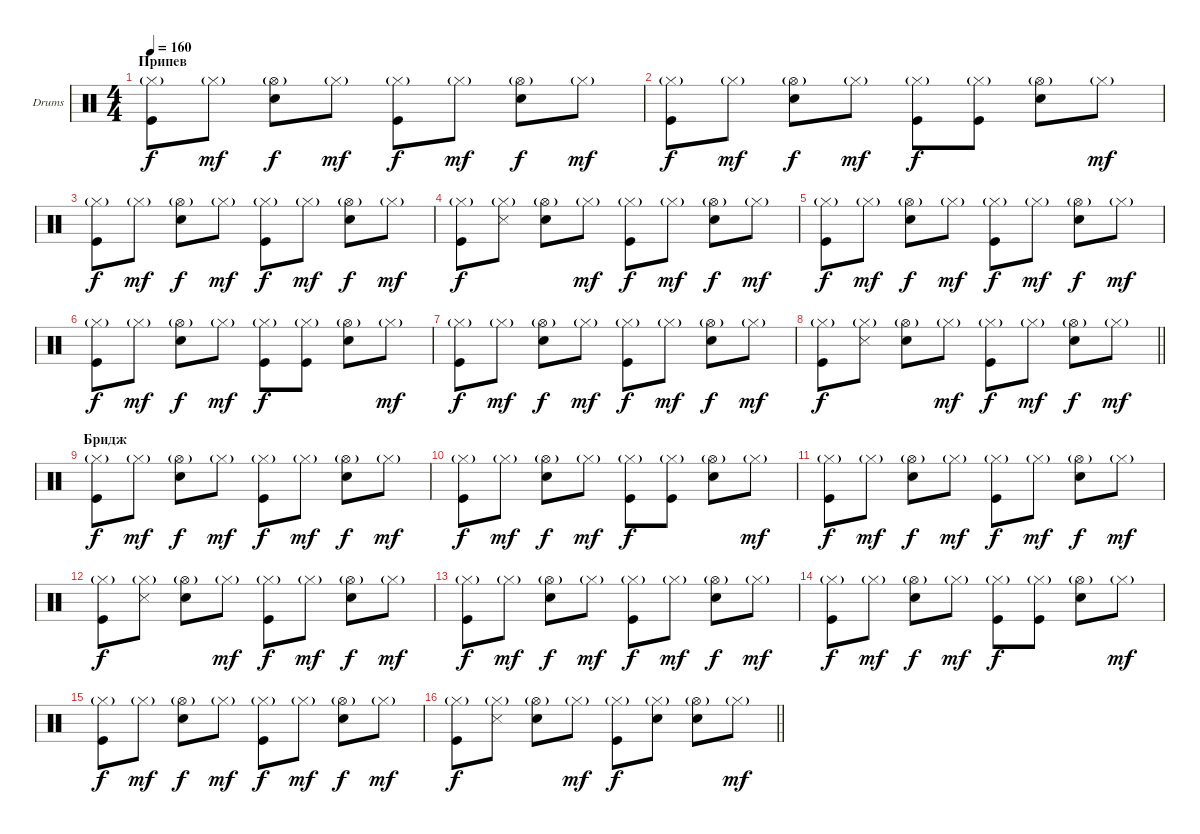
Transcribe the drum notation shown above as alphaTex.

\bracketExtendMode groupsimilarinstruments
\firstSystemTrackNameOrientation horizontal
\otherSystemsTrackNameOrientation horizontal
\track ("Ударные" "Drums") {instrument percussion}
\staff {score}
\articulation defaults
\ts (4 4)
\section ("" "Припев")
\tempo 160
\clef neutral
\ks c
("Hi-Hat (closed)"{g} "Kick (hit)").8{dy f} "Hi-Hat (closed)"{g}.8{dy mf} ("Hi-Hat (open)"{g} "Snare (hit) 2").8{dy f} "Hi-Hat (closed)"{g}.8{dy mf} ("Hi-Hat (closed)"{g} "Kick (hit)").8{dy f} "Hi-Hat (closed)"{g}.8{dy mf} ("Hi-Hat (open)"{g} "Snare (hit) 2").8{dy f} "Hi-Hat (closed)"{g}.8{dy mf} |
("Hi-Hat (closed)"{g} "Kick (hit)").8{dy f} "Hi-Hat (closed)"{g}.8{dy mf} ("Hi-Hat (open)"{g} "Snare (hit) 2").8{dy f} "Hi-Hat (closed)"{g}.8{dy mf} ("Hi-Hat (closed)"{g} "Kick (hit)").8{dy f} ("Hi-Hat (closed)"{g} "Kick (hit)").8 ("Hi-Hat (open)"{g} "Snare (hit) 2").8 "Hi-Hat (closed)"{g}.8{dy mf} |
("Hi-Hat (closed)"{g} "Kick (hit)").8{dy f} "Hi-Hat (closed)"{g}.8{dy mf} ("Hi-Hat (open)"{g} "Snare (hit) 2").8{dy f} "Hi-Hat (closed)"{g}.8{dy mf} ("Hi-Hat (closed)"{g} "Kick (hit)").8{dy f} "Hi-Hat (closed)"{g}.8{dy mf} ("Hi-Hat (open)"{g} "Snare (hit) 2").8{dy f} "Hi-Hat (closed)"{g}.8{dy mf} |
("Hi-Hat (closed)"{g} "Kick (hit)").8{dy f} ("Hi-Hat (closed)"{g} "Snare (side stick) 3").8 ("Hi-Hat (open)"{g} "Snare (hit) 2").8 "Hi-Hat (closed)"{g}.8{dy mf} ("Hi-Hat (closed)"{g} "Kick (hit)").8{dy f} "Hi-Hat (closed)"{g}.8{dy mf} ("Hi-Hat (open)"{g} "Snare (hit) 2").8{dy f} "Hi-Hat (closed)"{g}.8{dy mf} |
("Hi-Hat (closed)"{g} "Kick (hit)").8{dy f} "Hi-Hat (closed)"{g}.8{dy mf} ("Hi-Hat (open)"{g} "Snare (hit) 2").8{dy f} "Hi-Hat (closed)"{g}.8{dy mf} ("Hi-Hat (closed)"{g} "Kick (hit)").8{dy f} "Hi-Hat (closed)"{g}.8{dy mf} ("Hi-Hat (open)"{g} "Snare (hit) 2").8{dy f} "Hi-Hat (closed)"{g}.8{dy mf} |
("Hi-Hat (closed)"{g} "Kick (hit)").8{dy f} "Hi-Hat (closed)"{g}.8{dy mf} ("Hi-Hat (open)"{g} "Snare (hit) 2").8{dy f} "Hi-Hat (closed)"{g}.8{dy mf} ("Hi-Hat (closed)"{g} "Kick (hit)").8{dy f} ("Hi-Hat (closed)"{g} "Kick (hit)").8 ("Hi-Hat (open)"{g} "Snare (hit) 2").8 "Hi-Hat (closed)"{g}.8{dy mf} |
("Hi-Hat (closed)"{g} "Kick (hit)").8{dy f} "Hi-Hat (closed)"{g}.8{dy mf} ("Hi-Hat (open)"{g} "Snare (hit) 2").8{dy f} "Hi-Hat (closed)"{g}.8{dy mf} ("Hi-Hat (closed)"{g} "Kick (hit)").8{dy f} "Hi-Hat (closed)"{g}.8{dy mf} ("Hi-Hat (open)"{g} "Snare (hit) 2").8{dy f} "Hi-Hat (closed)"{g}.8{dy mf} |
\barLineRight lightlight
("Hi-Hat (closed)"{g} "Kick (hit)").8{dy f} ("Hi-Hat (closed)"{g} "Snare (side stick) 3").8 ("Hi-Hat (open)"{g} "Snare (hit) 2").8 "Hi-Hat (closed)"{g}.8{dy mf} ("Hi-Hat (closed)"{g} "Kick (hit)").8{dy f} "Hi-Hat (closed)"{g}.8{dy mf} ("Hi-Hat (open)"{g} "Snare (hit) 2").8{dy f} "Hi-Hat (closed)"{g}.8{dy mf} |
\section ("" "Бридж")
("Hi-Hat (closed)"{g} "Kick (hit)").8{dy f} "Hi-Hat (closed)"{g}.8{dy mf} ("Hi-Hat (open)"{g} "Snare (hit) 2").8{dy f} "Hi-Hat (closed)"{g}.8{dy mf} ("Hi-Hat (closed)"{g} "Kick (hit)").8{dy f} "Hi-Hat (closed)"{g}.8{dy mf} ("Hi-Hat (open)"{g} "Snare (hit) 2").8{dy f} "Hi-Hat (closed)"{g}.8{dy mf} |
("Hi-Hat (closed)"{g} "Kick (hit)").8{dy f} "Hi-Hat (closed)"{g}.8{dy mf} ("Hi-Hat (open)"{g} "Snare (hit) 2").8{dy f} "Hi-Hat (closed)"{g}.8{dy mf} ("Hi-Hat (closed)"{g} "Kick (hit)").8{dy f} ("Hi-Hat (closed)"{g} "Kick (hit)").8 ("Hi-Hat (open)"{g} "Snare (hit) 2").8 "Hi-Hat (closed)"{g}.8{dy mf} |
("Hi-Hat (closed)"{g} "Kick (hit)").8{dy f} "Hi-Hat (closed)"{g}.8{dy mf} ("Hi-Hat (open)"{g} "Snare (hit) 2").8{dy f} "Hi-Hat (closed)"{g}.8{dy mf} ("Hi-Hat (closed)"{g} "Kick (hit)").8{dy f} "Hi-Hat (closed)"{g}.8{dy mf} ("Hi-Hat (open)"{g} "Snare (hit) 2").8{dy f} "Hi-Hat (closed)"{g}.8{dy mf} |
("Hi-Hat (closed)"{g} "Kick (hit)").8{dy f} ("Hi-Hat (closed)"{g} "Snare (side stick) 3").8 ("Hi-Hat (open)"{g} "Snare (hit) 2").8 "Hi-Hat (closed)"{g}.8{dy mf} ("Hi-Hat (closed)"{g} "Kick (hit)").8{dy f} "Hi-Hat (closed)"{g}.8{dy mf} ("Hi-Hat (open)"{g} "Snare (hit) 2").8{dy f} "Hi-Hat (closed)"{g}.8{dy mf} |
("Hi-Hat (closed)"{g} "Kick (hit)").8{dy f} "Hi-Hat (closed)"{g}.8{dy mf} ("Hi-Hat (open)"{g} "Snare (hit) 2").8{dy f} "Hi-Hat (closed)"{g}.8{dy mf} ("Hi-Hat (closed)"{g} "Kick (hit)").8{dy f} "Hi-Hat (closed)"{g}.8{dy mf} ("Hi-Hat (open)"{g} "Snare (hit) 2").8{dy f} "Hi-Hat (closed)"{g}.8{dy mf} |
("Hi-Hat (closed)"{g} "Kick (hit)").8{dy f} "Hi-Hat (closed)"{g}.8{dy mf} ("Hi-Hat (open)"{g} "Snare (hit) 2").8{dy f} "Hi-Hat (closed)"{g}.8{dy mf} ("Hi-Hat (closed)"{g} "Kick (hit)").8{dy f} ("Hi-Hat (closed)"{g} "Kick (hit)").8 ("Hi-Hat (open)"{g} "Snare (hit) 2").8 "Hi-Hat (closed)"{g}.8{dy mf} |
("Hi-Hat (closed)"{g} "Kick (hit)").8{dy f} "Hi-Hat (closed)"{g}.8{dy mf} ("Hi-Hat (open)"{g} "Snare (hit) 2").8{dy f} "Hi-Hat (closed)"{g}.8{dy mf} ("Hi-Hat (closed)"{g} "Kick (hit)").8{dy f} "Hi-Hat (closed)"{g}.8{dy mf} ("Hi-Hat (open)"{g} "Snare (hit) 2").8{dy f} "Hi-Hat (closed)"{g}.8{dy mf} |
\barLineRight lightlight
("Hi-Hat (closed)"{g} "Kick (hit)").8{dy f} ("Hi-Hat (closed)"{g} "Snare (side stick) 3").8 ("Hi-Hat (open)"{g} "Snare (hit) 2").8 "Hi-Hat (closed)"{g}.8{dy mf} ("Hi-Hat (closed)"{g} "Kick (hit)").8{dy f} ("Hi-Hat (closed)"{g} "Snare (hit) 2").8 ("Hi-Hat (open)"{g} "Snare (hit) 2").8 "Hi-Hat (closed)"{g}.8{dy mf}
